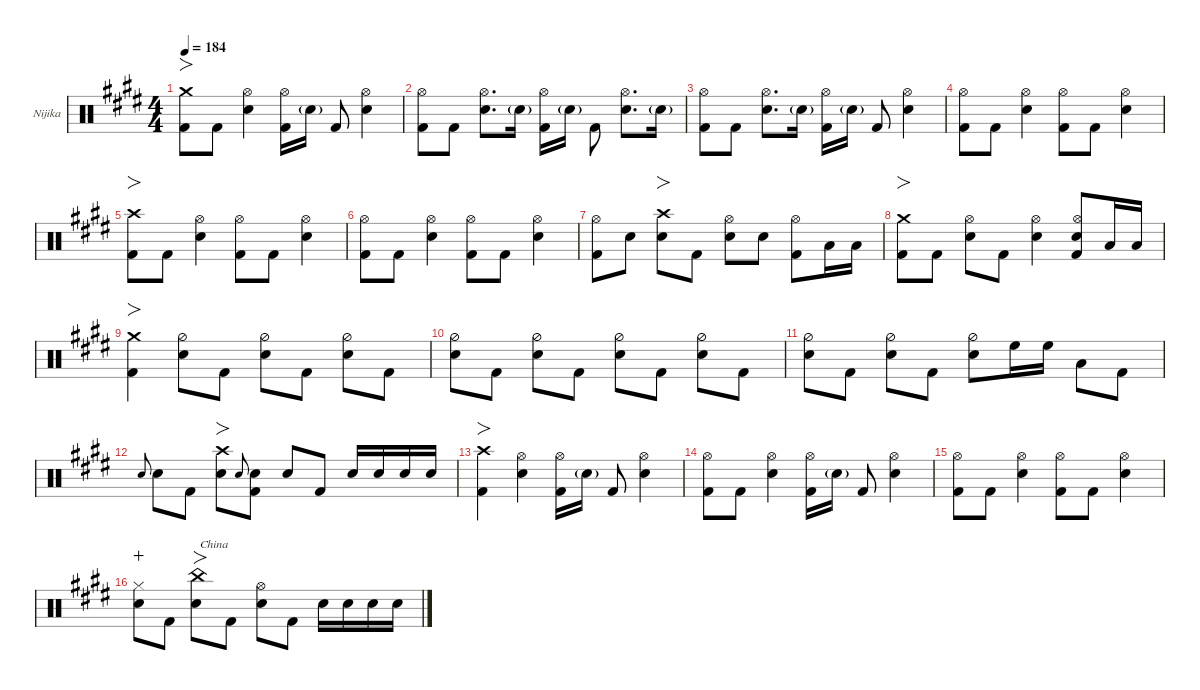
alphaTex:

\defaultSystemsLayout 4
\hideDynamics
\bracketExtendMode nobrackets
\firstSystemTrackNameOrientation horizontal
\track ("Nijika" "Nijika") {defaultSystemsLayout 4 instrument percussion}
\staff {score}
\articulation defaults
\ts (4 4)
\tempo 184
\clef neutral
\ks e
("Crash medium (hit)"{acc forcenatural} "Kick (hit) 2"{acc forcenatural}).8{fo dy f beam Down} "Kick (hit) 2"{acc forcenatural}.8{beam Down} ("Hi-Hat (open)"{acc forcenatural} "Snare (hit) 2"{acc forcenatural}).4{beam Down} ("Hi-Hat (open)"{acc forcenatural} "Kick (hit) 2"{acc forcenatural}).16{beam Down} "Snare (hit) 2"{g acc forcenatural}.16{dy mf beam Down beam split} "Kick (hit) 2"{acc forcenatural}.8{dy f beam Up} ("Hi-Hat (open)"{acc forcenatural} "Snare (hit) 2"{acc forcenatural}).4{beam Down} |
("Hi-Hat (open)"{acc forcenatural} "Kick (hit) 2"{acc forcenatural}).8{beam Down} "Kick (hit) 2"{acc forcenatural}.8{beam Down} ("Hi-Hat (open)"{acc forcenatural} "Snare (hit) 2"{acc forcenatural}).8{d beam Down} "Snare (hit) 2"{g acc forcenatural}.16{dy mf beam Down} ("Hi-Hat (open)"{acc forcenatural} "Kick (hit) 2"{acc forcenatural}).16{dy f beam Down} "Snare (hit) 2"{g acc forcenatural}.16{dy mf beam Down beam split} "Kick (hit) 2"{acc forcenatural}.8{dy f beam Down} ("Hi-Hat (open)"{acc forcenatural} "Snare (hit) 2"{acc forcenatural}).8{d beam Down} "Snare (hit) 2"{g acc forcenatural}.16{dy mf beam Down} |
("Hi-Hat (open)"{acc forcenatural} "Kick (hit) 2"{acc forcenatural}).8{dy f beam Down} "Kick (hit) 2"{acc forcenatural}.8{beam Down} ("Hi-Hat (open)"{acc forcenatural} "Snare (hit) 2"{acc forcenatural}).8{d beam Down} "Snare (hit) 2"{g acc forcenatural}.16{dy mf beam Down} ("Hi-Hat (open)"{acc forcenatural} "Kick (hit) 2"{acc forcenatural}).16{dy f beam Down} "Snare (hit) 2"{g acc forcenatural}.16{dy mf beam Down beam split} "Kick (hit) 2"{acc forcenatural}.8{dy f beam Up} ("Hi-Hat (open)"{acc forcenatural} "Snare (hit) 2"{acc forcenatural}).4{beam Down} |
("Hi-Hat (open)"{acc forcenatural} "Kick (hit) 2"{acc forcenatural}).8{beam Down} "Kick (hit) 2"{acc forcenatural}.8{beam Down} ("Hi-Hat (open)"{acc forcenatural} "Snare (hit) 2"{acc forcenatural}).4{beam Down} ("Hi-Hat (open)"{acc forcenatural} "Kick (hit) 2"{acc forcenatural}).8{beam Down} "Kick (hit) 2"{acc forcenatural}.8{beam Down} ("Hi-Hat (open)"{acc forcenatural} "Snare (hit) 2"{acc forcenatural}).4{beam Down} |
("Crash high (hit)"{acc forcenatural} "Kick (hit) 2"{acc forcenatural}).8{fo beam Down} "Kick (hit) 2"{acc forcenatural}.8{beam Down} ("Hi-Hat (open)"{acc forcenatural} "Snare (hit) 2"{acc forcenatural}).4{beam Down} ("Hi-Hat (open)"{acc forcenatural} "Kick (hit) 2"{acc forcenatural}).8{beam Down} "Kick (hit) 2"{acc forcenatural}.8{beam Down} ("Hi-Hat (open)"{acc forcenatural} "Snare (hit) 2"{acc forcenatural}).4{beam Down} |
("Hi-Hat (open)"{acc forcenatural} "Kick (hit) 2"{acc forcenatural}).8{beam Down} "Kick (hit) 2"{acc forcenatural}.8{beam Down} ("Hi-Hat (open)"{acc forcenatural} "Snare (hit) 2"{acc forcenatural}).4{beam Down} ("Hi-Hat (open)"{acc forcenatural} "Kick (hit) 2"{acc forcenatural}).8{beam Down} "Kick (hit) 2"{acc forcenatural}.8{beam Down} ("Hi-Hat (open)"{acc forcenatural} "Snare (hit) 2"{acc forcenatural}).4{beam Down} |
("Hi-Hat (open)"{acc forcenatural} "Kick (hit) 2"{acc forcenatural}).8{beam Down} "Snare (hit) 2"{acc forcenatural}.8{beam Down} ("Snare (hit) 2"{acc forcenatural} "Crash high (hit)"{acc forcenatural}).8{fo beam Down} "Kick (hit) 2"{acc forcenatural}.8{beam Down} ("Snare (hit) 2"{acc forcenatural} "Hi-Hat (open)"{acc forcenatural}).8{beam Down} "Snare (hit) 2"{acc forcenatural}.8{beam Down beam split} ("Hi-Hat (open)"{acc forcenatural} "Kick (hit) 2"{acc forcenatural}).8{beam Down} "Low Tom (hit)"{acc forcenatural}.16{beam Down} "Low Tom (hit)"{acc forcenatural}.16{beam Down} |
("Crash medium (hit)"{acc forcenatural} "Kick (hit) 2"{acc forcenatural}).8{fo beam Down} "Kick (hit) 2"{acc forcenatural}.8{beam Down} ("Snare (hit) 2"{acc forcenatural} "Hi-Hat (open)"{acc forcenatural}).8{beam Down} "Kick (hit) 2"{acc forcenatural}.8{beam Down} ("Hi-Hat (open)"{acc forcenatural} "Snare (hit) 2"{acc forcenatural}).4{beam Down} ("Hi-Hat (open)"{acc forcenatural} "Snare (hit) 2"{acc forcenatural} "Kick (hit) 2"{acc forcenatural}).8{beam Up} "Low Tom (hit)"{acc forcenatural}.16{beam Up} "Low Tom (hit)"{acc forcenatural}.16{beam Up} |
("Crash medium (hit)"{acc forcenatural} "Kick (hit) 2"{acc forcenatural}).4{fo beam Down} ("Snare (hit) 2"{acc forcenatural} "Hi-Hat (half)"{acc forcenatural}).8{beam Down} "Kick (hit) 2"{acc forcenatural}.8{beam Down} ("Snare (hit) 2"{acc forcenatural} "Hi-Hat (half)"{acc forcenatural}).8{beam Down} "Kick (hit) 2"{acc forcenatural}.8{beam Down} ("Snare (hit) 2"{acc forcenatural} "Hi-Hat (half)"{acc forcenatural}).8{beam Down} "Kick (hit) 2"{acc forcenatural}.8{beam Down} |
("Snare (hit) 2"{acc forcenatural} "Hi-Hat (half)"{acc forcenatural}).8{beam Down} "Kick (hit) 2"{acc forcenatural}.8{beam Down} ("Snare (hit) 2"{acc forcenatural} "Hi-Hat (half)"{acc forcenatural}).8{beam Down} "Kick (hit) 2"{acc forcenatural}.8{beam Down} ("Snare (hit) 2"{acc forcenatural} "Hi-Hat (half)"{acc forcenatural}).8{beam Down} "Kick (hit) 2"{acc forcenatural}.8{beam Down} ("Snare (hit) 2"{acc forcenatural} "Hi-Hat (half)"{acc forcenatural}).8{beam Down} "Kick (hit) 2"{acc forcenatural}.8{beam Down} |
("Snare (hit) 2"{acc forcenatural} "Hi-Hat (half)"{acc forcenatural}).8{beam Down} "Kick (hit) 2"{acc forcenatural}.8{beam Down} ("Snare (hit) 2"{acc forcenatural} "Hi-Hat (half)"{acc forcenatural}).8{beam Down} "Kick (hit) 2"{acc forcenatural}.8{beam Down} ("Snare (hit) 2"{acc forcenatural} "Hi-Hat (half)"{acc forcenatural}).8{beam Down} "High Floor Tom (hit)"{acc forcenatural}.16{beam Down} "High Floor Tom (hit)"{acc forcenatural}.16{beam Down} "Low Tom (hit)"{acc forcenatural}.8{beam Down} "Kick (hit) 2"{acc forcenatural}.8{beam Down} |
"Snare (hit) 2"{acc forcenatural}.8{gr onbeat beam Up} "Snare (hit) 2"{acc forcenatural}.8{beam Down} "Kick (hit) 2"{acc forcenatural}.8{beam Down} ("Snare (hit) 2"{acc forcenatural} "Crash high (hit)"{acc forcenatural}).8{fo beam Down} "Snare (hit) 2"{acc forcenatural}.8{gr onbeat beam Up} ("Kick (hit) 2"{acc forcenatural} "Snare (hit) 2"{acc forcenatural}).8{beam Down} "Snare (hit) 2"{acc forcenatural}.8{beam Up} "Kick (hit) 2"{acc forcenatural}.8{beam Up} "Snare (hit) 2"{acc forcenatural}.16{beam Up} "Snare (hit) 2"{acc forcenatural}.16{dy mf beam Up} "Snare (hit) 2"{acc forcenatural}.16{dy f beam Up} "Snare (hit) 2"{acc forcenatural}.16{dy mf beam Up} |
("Crash high (hit)"{acc forcenatural} "Kick (hit) 2"{acc forcenatural}).4{fo dy f beam Down} ("Hi-Hat (open)"{acc forcenatural} "Snare (hit) 2"{acc forcenatural}).4{beam Down} ("Hi-Hat (open)"{acc forcenatural} "Kick (hit) 2"{acc forcenatural}).16{beam Down} "Snare (hit) 2"{g acc forcenatural}.16{dy mf beam Down beam split} "Kick (hit) 2"{acc forcenatural}.8{dy f beam Up} ("Hi-Hat (open)"{acc forcenatural} "Snare (hit) 2"{acc forcenatural}).4{beam Down} |
("Hi-Hat (open)"{acc forcenatural} "Kick (hit) 2"{acc forcenatural}).8{beam Down} "Kick (hit) 2"{acc forcenatural}.8{beam Down} ("Hi-Hat (open)"{acc forcenatural} "Snare (hit) 2"{acc forcenatural}).4{beam Down} ("Hi-Hat (open)"{acc forcenatural} "Kick (hit) 2"{acc forcenatural}).16{beam Down} "Snare (hit) 2"{g acc forcenatural}.16{dy mf beam Down beam split} "Kick (hit) 2"{acc forcenatural}.8{dy f beam Up} ("Hi-Hat (open)"{acc forcenatural} "Snare (hit) 2"{acc forcenatural}).4{beam Down} |
("Hi-Hat (open)"{acc forcenatural} "Kick (hit) 2"{acc forcenatural}).8{beam Down} "Kick (hit) 2"{acc forcenatural}.8{beam Down} ("Hi-Hat (open)"{acc forcenatural} "Snare (hit) 2"{acc forcenatural}).4{beam Down} ("Hi-Hat (open)"{acc forcenatural} "Kick (hit) 2"{acc forcenatural}).8{beam Down} "Kick (hit) 2"{acc forcenatural}.8{beam Down} ("Hi-Hat (open)"{acc forcenatural} "Snare (hit) 2"{acc forcenatural}).4{beam Down} |
("Hi-Hat (closed)"{acc forcenatural} "Snare (hit) 2"{acc forcenatural}).8{wahc beam Down} "Kick (hit) 2"{acc forcenatural}.8{beam Down} ("Snare (hit) 2"{acc forcenatural} "China (hit)"{acc forcenatural}).8{fo txt "China" beam Down} "Kick (hit) 2"{acc forcenatural}.8{beam Down} ("Hi-Hat (open)"{acc forcenatural} "Snare (hit) 2"{acc forcenatural}).8{beam Down} "Kick (hit) 2"{acc forcenatural}.8{beam Down} "Snare (hit) 2"{acc forcenatural}.16{beam Down} "Snare (hit) 2"{acc forcenatural}.16{dy mf beam Down} "Snare (hit) 2"{acc forcenatural}.16{dy f beam Down} "Snare (hit) 2"{acc forcenatural}.16{dy mf beam Down}
